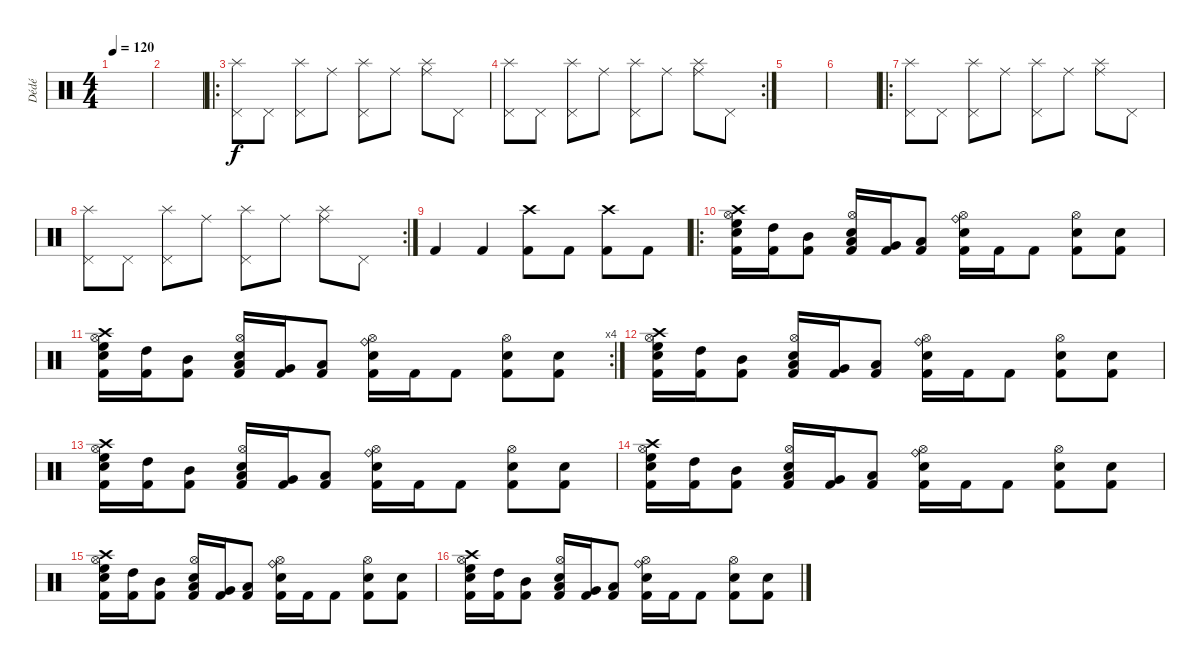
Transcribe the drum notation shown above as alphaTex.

\track ("Dédé" "Dédé") {instrument percussion}
\staff {score}
\articulation defaults
\ts (4 4)
\tempo 120
\clef neutral
\ks c
|
|
\ro
("Splash (hit)" "Pedal Hi-Hat (hit)").8 "Pedal Hi-Hat (hit)".8 ("Splash (hit)" "Pedal Hi-Hat (hit)").8 "Ride (middle)".8 ("Splash (hit)" "Pedal Hi-Hat (hit)").8 "Ride (middle)".8 ("Splash (hit)" "Ride (middle)").8 "Pedal Hi-Hat (hit)".8 |
\rc 2
("Splash (hit)" "Pedal Hi-Hat (hit)").8 "Pedal Hi-Hat (hit)".8 ("Splash (hit)" "Pedal Hi-Hat (hit)").8 "Ride (middle)".8 ("Splash (hit)" "Pedal Hi-Hat (hit)").8 "Ride (middle)".8 ("Splash (hit)" "Ride (middle)").8 "Pedal Hi-Hat (hit)".8 |
|
|
\ro
("Splash (hit)" "Pedal Hi-Hat (hit)").8 "Pedal Hi-Hat (hit)".8 ("Splash (hit)" "Pedal Hi-Hat (hit)").8 "Ride (middle)".8 ("Splash (hit)" "Pedal Hi-Hat (hit)").8 "Ride (middle)".8 ("Splash (hit)" "Ride (middle)").8 "Pedal Hi-Hat (hit)".8 |
\rc 2
("Splash (hit)" "Pedal Hi-Hat (hit)").8 "Pedal Hi-Hat (hit)".8 ("Splash (hit)" "Pedal Hi-Hat (hit)").8 "Ride (middle)".8 ("Splash (hit)" "Pedal Hi-Hat (hit)").8 "Ride (middle)".8 ("Splash (hit)" "Ride (middle)").8 "Pedal Hi-Hat (hit)".8 |
"Kick (hit) 2".4 "Kick (hit) 2".4 ("Crash high (hit)" "Kick (hit) 2").8 "Kick (hit) 2".8 ("Crash high (hit)" "Kick (hit) 2").8 "Kick (hit) 2".8 |
\ro
("Kick (hit) 2" "Electric Snare (hit)" "Crash high (hit)" "High Floor Tom (hit)" "Hi-Hat (open)").16 ("Kick (hit) 2" "High Tom (hit)").16 ("Kick (hit) 2" "Mid Tom (hit)").8 ("Kick (hit) 2" "Electric Snare (hit)" "Low Tom (hit)" "Hi-Hat (open)").16 ("Kick (hit) 2" "Very Low Tom (hit)").16 ("Kick (hit) 2" "Low Floor Tom (hit)").8 ("Kick (hit) 2" "Electric Snare (hit)" "Ride (bell)" "Hi-Hat (open)").16 "Kick (hit) 2".16 "Kick (hit) 2".8 ("Kick (hit) 2" "Electric Snare (hit)" "Hi-Hat (open)").8 ("Kick (hit) 2" "Electric Snare (hit)").8 |
\rc 4
("Kick (hit) 2" "Electric Snare (hit)" "Crash high (hit)" "High Floor Tom (hit)" "Hi-Hat (open)").16 ("Kick (hit) 2" "High Tom (hit)").16 ("Kick (hit) 2" "Mid Tom (hit)").8 ("Kick (hit) 2" "Electric Snare (hit)" "Low Tom (hit)" "Hi-Hat (open)").16 ("Kick (hit) 2" "Very Low Tom (hit)").16 ("Kick (hit) 2" "Low Floor Tom (hit)").8 ("Kick (hit) 2" "Electric Snare (hit)" "Ride (bell)" "Hi-Hat (open)").16 "Kick (hit) 2".16 "Kick (hit) 2".8 ("Kick (hit) 2" "Electric Snare (hit)" "Hi-Hat (open)").8 ("Kick (hit) 2" "Electric Snare (hit)").8 |
("Kick (hit) 2" "Electric Snare (hit)" "Crash high (hit)" "High Floor Tom (hit)" "Hi-Hat (open)").16 ("Kick (hit) 2" "High Tom (hit)").16 ("Kick (hit) 2" "Mid Tom (hit)").8 ("Kick (hit) 2" "Electric Snare (hit)" "Low Tom (hit)" "Hi-Hat (open)").16 ("Kick (hit) 2" "Very Low Tom (hit)").16 ("Kick (hit) 2" "Low Floor Tom (hit)").8 ("Kick (hit) 2" "Electric Snare (hit)" "Ride (bell)" "Hi-Hat (open)").16 "Kick (hit) 2".16 "Kick (hit) 2".8 ("Kick (hit) 2" "Electric Snare (hit)" "Hi-Hat (open)").8 ("Kick (hit) 2" "Electric Snare (hit)").8 |
("Kick (hit) 2" "Electric Snare (hit)" "Crash high (hit)" "High Floor Tom (hit)" "Hi-Hat (open)").16 ("Kick (hit) 2" "High Tom (hit)").16 ("Kick (hit) 2" "Mid Tom (hit)").8 ("Kick (hit) 2" "Electric Snare (hit)" "Low Tom (hit)" "Hi-Hat (open)").16 ("Kick (hit) 2" "Very Low Tom (hit)").16 ("Kick (hit) 2" "Low Floor Tom (hit)").8 ("Kick (hit) 2" "Electric Snare (hit)" "Ride (bell)" "Hi-Hat (open)").16 "Kick (hit) 2".16 "Kick (hit) 2".8 ("Kick (hit) 2" "Electric Snare (hit)" "Hi-Hat (open)").8 ("Kick (hit) 2" "Electric Snare (hit)").8 |
("Kick (hit) 2" "Electric Snare (hit)" "Crash high (hit)" "High Floor Tom (hit)" "Hi-Hat (open)").16 ("Kick (hit) 2" "High Tom (hit)").16 ("Kick (hit) 2" "Mid Tom (hit)").8 ("Kick (hit) 2" "Electric Snare (hit)" "Low Tom (hit)" "Hi-Hat (open)").16 ("Kick (hit) 2" "Very Low Tom (hit)").16 ("Kick (hit) 2" "Low Floor Tom (hit)").8 ("Kick (hit) 2" "Electric Snare (hit)" "Ride (bell)" "Hi-Hat (open)").16 "Kick (hit) 2".16 "Kick (hit) 2".8 ("Kick (hit) 2" "Electric Snare (hit)" "Hi-Hat (open)").8 ("Kick (hit) 2" "Electric Snare (hit)").8 |
("Kick (hit) 2" "Electric Snare (hit)" "Crash high (hit)" "High Floor Tom (hit)" "Hi-Hat (open)").16 ("Kick (hit) 2" "High Tom (hit)").16 ("Kick (hit) 2" "Mid Tom (hit)").8 ("Kick (hit) 2" "Electric Snare (hit)" "Low Tom (hit)" "Hi-Hat (open)").16 ("Kick (hit) 2" "Very Low Tom (hit)").16 ("Kick (hit) 2" "Low Floor Tom (hit)").8 ("Kick (hit) 2" "Electric Snare (hit)" "Ride (bell)" "Hi-Hat (open)").16 "Kick (hit) 2".16 "Kick (hit) 2".8 ("Kick (hit) 2" "Electric Snare (hit)" "Hi-Hat (open)").8 ("Kick (hit) 2" "Electric Snare (hit)").8 |
("Kick (hit) 2" "Electric Snare (hit)" "Crash high (hit)" "High Floor Tom (hit)" "Hi-Hat (open)").16 ("Kick (hit) 2" "High Tom (hit)").16 ("Kick (hit) 2" "Mid Tom (hit)").8 ("Kick (hit) 2" "Electric Snare (hit)" "Low Tom (hit)" "Hi-Hat (open)").16 ("Kick (hit) 2" "Very Low Tom (hit)").16 ("Kick (hit) 2" "Low Floor Tom (hit)").8 ("Kick (hit) 2" "Electric Snare (hit)" "Ride (bell)" "Hi-Hat (open)").16 "Kick (hit) 2".16 "Kick (hit) 2".8 ("Kick (hit) 2" "Electric Snare (hit)" "Hi-Hat (open)").8 ("Kick (hit) 2" "Electric Snare (hit)").8
